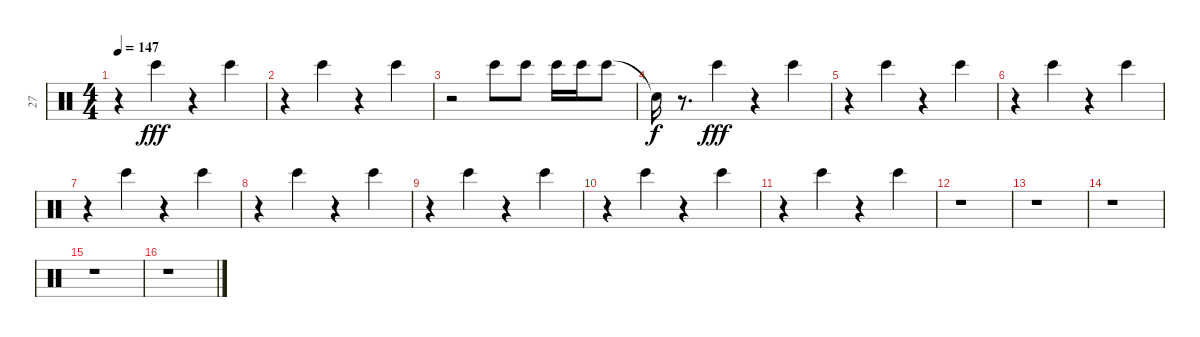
\track ("27" "27") {instrument percussion}
\staff {score}
\articulation defaults
\ts (4 4)
\tempo 147
\clef neutral
\ks c
r.4{dy fff} "Bongo High (hit)".4 r.4 "Bongo High (hit)".4 |
r.4 "Bongo High (hit)".4 r.4 "Bongo High (hit)".4 |
r.2 "Bongo High (hit)".8 "Bongo High (hit)".8 "Bongo High (hit)".16 "Bongo High (hit)".16 "Bongo High (hit)".8 |
"Snare (hit)"{t}.16{dy f} r.8{d} "Bongo High (hit)".4{dy fff} r.4 "Bongo High (hit)".4 |
r.4 "Bongo High (hit)".4 r.4 "Bongo High (hit)".4 |
r.4 "Bongo High (hit)".4 r.4 "Bongo High (hit)".4 |
r.4 "Bongo High (hit)".4 r.4 "Bongo High (hit)".4 |
r.4 "Bongo High (hit)".4 r.4 "Bongo High (hit)".4 |
r.4 "Bongo High (hit)".4 r.4 "Bongo High (hit)".4 |
r.4 "Bongo High (hit)".4 r.4 "Bongo High (hit)".4 |
r.4 "Bongo High (hit)".4 r.4 "Bongo High (hit)".4 |
r.1 |
r.1 |
r.1 |
r.1 |
r.1
